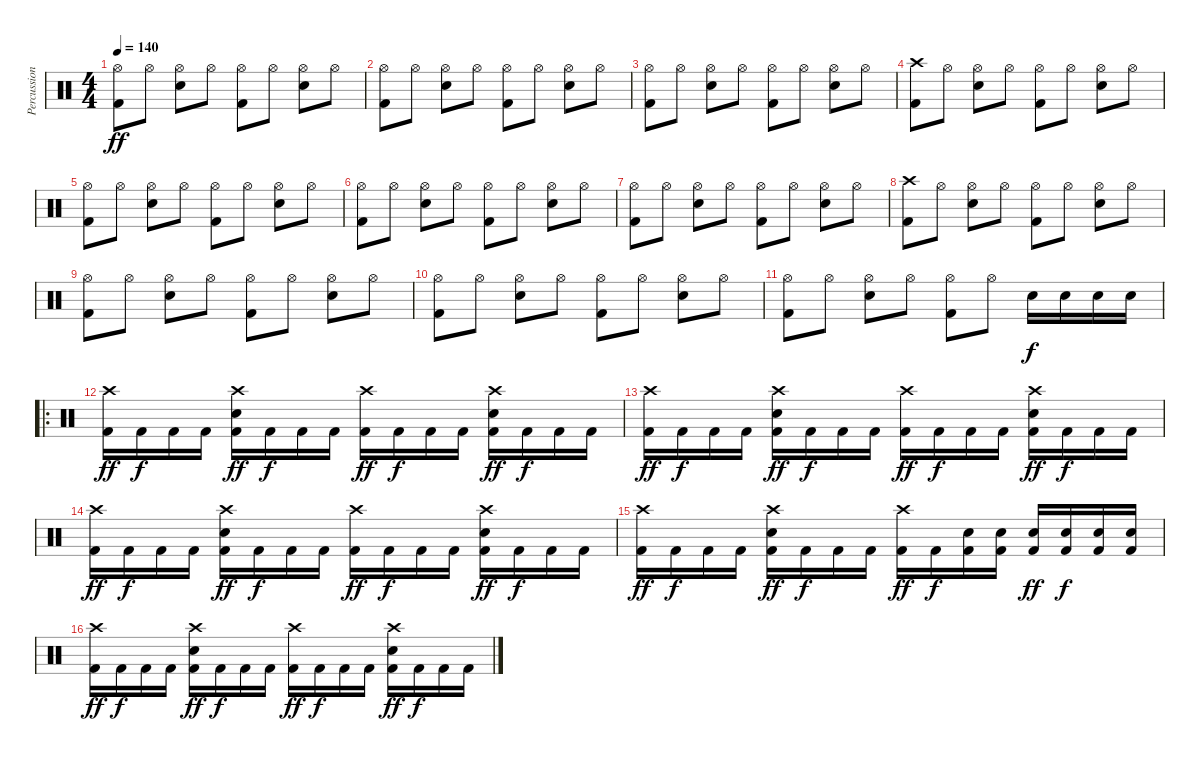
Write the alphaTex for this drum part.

\track ("Percussion" "Percussion") {instrument percussion}
\staff {score}
\articulation defaults
\ts (4 4)
\tempo 140
\clef neutral
\ks c
("Hi-Hat (open)" "Kick (hit) 2").8{dy ff} "Hi-Hat (open)".8 ("Hi-Hat (open)" "Snare (hit) 2").8 "Hi-Hat (open)".8 ("Hi-Hat (open)" "Kick (hit) 2").8 "Hi-Hat (open)".8 ("Hi-Hat (open)" "Snare (hit) 2").8 "Hi-Hat (open)".8 |
("Hi-Hat (open)" "Kick (hit) 2").8 "Hi-Hat (open)".8 ("Hi-Hat (open)" "Snare (hit) 2").8 "Hi-Hat (open)".8 ("Hi-Hat (open)" "Kick (hit) 2").8 "Hi-Hat (open)".8 ("Hi-Hat (open)" "Snare (hit) 2").8 "Hi-Hat (open)".8 |
("Hi-Hat (open)" "Kick (hit) 2").8 "Hi-Hat (open)".8 ("Hi-Hat (open)" "Snare (hit) 2").8 "Hi-Hat (open)".8 ("Hi-Hat (open)" "Kick (hit) 2").8 "Hi-Hat (open)".8 ("Hi-Hat (open)" "Snare (hit) 2").8 "Hi-Hat (open)".8 |
("Crash high (hit)" "Kick (hit) 2").8 "Hi-Hat (open)".8 ("Hi-Hat (open)" "Snare (hit) 2").8 "Hi-Hat (open)".8 ("Hi-Hat (open)" "Kick (hit) 2").8 "Hi-Hat (open)".8 ("Hi-Hat (open)" "Snare (hit) 2").8 "Hi-Hat (open)".8 |
("Hi-Hat (open)" "Kick (hit) 2").8 "Hi-Hat (open)".8 ("Hi-Hat (open)" "Snare (hit) 2").8 "Hi-Hat (open)".8 ("Hi-Hat (open)" "Kick (hit) 2").8 "Hi-Hat (open)".8 ("Hi-Hat (open)" "Snare (hit) 2").8 "Hi-Hat (open)".8 |
("Hi-Hat (open)" "Kick (hit) 2").8 "Hi-Hat (open)".8 ("Hi-Hat (open)" "Snare (hit) 2").8 "Hi-Hat (open)".8 ("Hi-Hat (open)" "Kick (hit) 2").8 "Hi-Hat (open)".8 ("Hi-Hat (open)" "Snare (hit) 2").8 "Hi-Hat (open)".8 |
("Hi-Hat (open)" "Kick (hit) 2").8 "Hi-Hat (open)".8 ("Hi-Hat (open)" "Snare (hit) 2").8 "Hi-Hat (open)".8 ("Hi-Hat (open)" "Kick (hit) 2").8 "Hi-Hat (open)".8 ("Hi-Hat (open)" "Snare (hit) 2").8 "Hi-Hat (open)".8 |
("Crash high (hit)" "Kick (hit) 2").8 "Hi-Hat (open)".8 ("Hi-Hat (open)" "Snare (hit) 2").8 "Hi-Hat (open)".8 ("Hi-Hat (open)" "Kick (hit) 2").8 "Hi-Hat (open)".8 ("Hi-Hat (open)" "Snare (hit) 2").8 "Hi-Hat (open)".8 |
("Hi-Hat (open)" "Kick (hit) 2").8 "Hi-Hat (open)".8 ("Hi-Hat (open)" "Snare (hit) 2").8 "Hi-Hat (open)".8 ("Hi-Hat (open)" "Kick (hit) 2").8 "Hi-Hat (open)".8 ("Hi-Hat (open)" "Snare (hit) 2").8 "Hi-Hat (open)".8 |
("Hi-Hat (open)" "Kick (hit) 2").8 "Hi-Hat (open)".8 ("Hi-Hat (open)" "Snare (hit) 2").8 "Hi-Hat (open)".8 ("Hi-Hat (open)" "Kick (hit) 2").8 "Hi-Hat (open)".8 ("Hi-Hat (open)" "Snare (hit) 2").8 "Hi-Hat (open)".8 |
("Hi-Hat (open)" "Kick (hit) 2").8 "Hi-Hat (open)".8 ("Hi-Hat (open)" "Snare (hit) 2").8 "Hi-Hat (open)".8 ("Hi-Hat (open)" "Kick (hit) 2").8 "Hi-Hat (open)".8 "Snare (hit) 2".16{dy f} "Snare (hit) 2".16 "Snare (hit) 2".16 "Snare (hit) 2".16 |
\ro
("Crash high (hit)" "Kick (hit) 2").16{dy ff} "Kick (hit) 2".16{dy f} "Kick (hit) 2".16 "Kick (hit) 2".16 ("Crash high (hit)" "Snare (hit) 2" "Kick (hit) 2").16{dy ff} "Kick (hit) 2".16{dy f} "Kick (hit) 2".16 "Kick (hit) 2".16 ("Crash high (hit)" "Kick (hit) 2").16{dy ff} "Kick (hit) 2".16{dy f} "Kick (hit) 2".16 "Kick (hit) 2".16 ("Crash high (hit)" "Snare (hit) 2" "Kick (hit) 2").16{dy ff} "Kick (hit) 2".16{dy f} "Kick (hit) 2".16 "Kick (hit) 2".16 |
("Crash high (hit)" "Kick (hit) 2").16{dy ff} "Kick (hit) 2".16{dy f} "Kick (hit) 2".16 "Kick (hit) 2".16 ("Crash high (hit)" "Snare (hit) 2" "Kick (hit) 2").16{dy ff} "Kick (hit) 2".16{dy f} "Kick (hit) 2".16 "Kick (hit) 2".16 ("Crash high (hit)" "Kick (hit) 2").16{dy ff} "Kick (hit) 2".16{dy f} "Kick (hit) 2".16 "Kick (hit) 2".16 ("Crash high (hit)" "Snare (hit) 2" "Kick (hit) 2").16{dy ff} "Kick (hit) 2".16{dy f} "Kick (hit) 2".16 "Kick (hit) 2".16 |
("Crash high (hit)" "Kick (hit) 2").16{dy ff} "Kick (hit) 2".16{dy f} "Kick (hit) 2".16 "Kick (hit) 2".16 ("Crash high (hit)" "Snare (hit) 2" "Kick (hit) 2").16{dy ff} "Kick (hit) 2".16{dy f} "Kick (hit) 2".16 "Kick (hit) 2".16 ("Crash high (hit)" "Kick (hit) 2").16{dy ff} "Kick (hit) 2".16{dy f} "Kick (hit) 2".16 "Kick (hit) 2".16 ("Crash high (hit)" "Snare (hit) 2" "Kick (hit) 2").16{dy ff} "Kick (hit) 2".16{dy f} "Kick (hit) 2".16 "Kick (hit) 2".16 |
("Crash high (hit)" "Kick (hit) 2").16{dy ff} "Kick (hit) 2".16{dy f} "Kick (hit) 2".16 "Kick (hit) 2".16 ("Crash high (hit)" "Snare (hit) 2" "Kick (hit) 2").16{dy ff} "Kick (hit) 2".16{dy f} "Kick (hit) 2".16 "Kick (hit) 2".16 ("Crash high (hit)" "Kick (hit) 2").16{dy ff} "Kick (hit) 2".16{dy f} ("Snare (hit) 2" "Kick (hit) 2").16 ("Snare (hit) 2" "Kick (hit) 2").16 ("Snare (hit) 2" "Kick (hit) 2").16{dy ff} ("Snare (hit) 2" "Kick (hit) 2").16{dy f} ("Snare (hit) 2" "Kick (hit) 2").16 ("Snare (hit) 2" "Kick (hit) 2").16 |
("Crash high (hit)" "Kick (hit) 2").16{dy ff} "Kick (hit) 2".16{dy f} "Kick (hit) 2".16 "Kick (hit) 2".16 ("Crash high (hit)" "Snare (hit) 2" "Kick (hit) 2").16{dy ff} "Kick (hit) 2".16{dy f} "Kick (hit) 2".16 "Kick (hit) 2".16 ("Crash high (hit)" "Kick (hit) 2").16{dy ff} "Kick (hit) 2".16{dy f} "Kick (hit) 2".16 "Kick (hit) 2".16 ("Crash high (hit)" "Snare (hit) 2" "Kick (hit) 2").16{dy ff} "Kick (hit) 2".16{dy f} "Kick (hit) 2".16 "Kick (hit) 2".16
